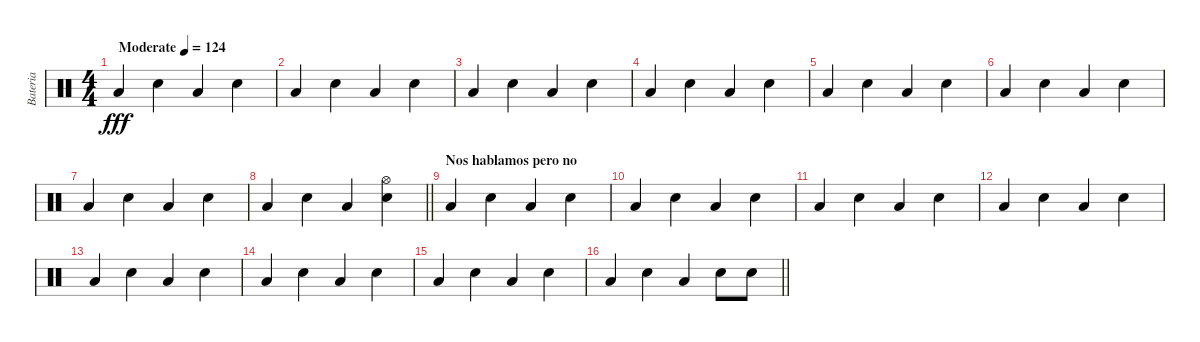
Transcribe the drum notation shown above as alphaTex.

\track ("Bateria" "Bateria") {instrument percussion}
\staff {score}
\articulation defaults
\ts (4 4)
\tempo (124 "Moderate")
\clef neutral
\ks c "Low Floor Tom (hit)".4{dy fff} "Snare (hit) 2".4 "Low Floor Tom (hit)".4 "Snare (hit) 2".4
|
"Low Floor Tom (hit)".4 "Snare (hit) 2".4 "Low Floor Tom (hit)".4 "Snare (hit) 2".4 |
"Low Floor Tom (hit)".4 "Snare (hit) 2".4 "Low Floor Tom (hit)".4 "Snare (hit) 2".4 |
"Low Floor Tom (hit)".4 "Snare (hit) 2".4 "Low Floor Tom (hit)".4 "Snare (hit) 2".4 |
"Low Floor Tom (hit)".4 "Snare (hit) 2".4 "Low Floor Tom (hit)".4 "Snare (hit) 2".4 |
"Low Floor Tom (hit)".4 "Snare (hit) 2".4 "Low Floor Tom (hit)".4 "Snare (hit) 2".4 |
"Low Floor Tom (hit)".4 "Snare (hit) 2".4 "Low Floor Tom (hit)".4 "Snare (hit) 2".4 |
\barLineRight lightlight "Low Floor Tom (hit)".4 "Snare (hit) 2".4 "Low Floor Tom (hit)".4
("Hi-Hat (open)" "Snare (hit) 2").4 |
\section ("" "Nos hablamos pero no")
"Low Floor Tom (hit)".4 "Snare (hit) 2".4 "Low Floor Tom (hit)".4 "Snare (hit) 2".4 |
"Low Floor Tom (hit)".4 "Snare (hit) 2".4 "Low Floor Tom (hit)".4 "Snare (hit) 2".4 |
"Low Floor Tom (hit)".4 "Snare (hit) 2".4 "Low Floor Tom (hit)".4 "Snare (hit) 2".4 |
"Low Floor Tom (hit)".4 "Snare (hit) 2".4 "Low Floor Tom (hit)".4 "Snare (hit) 2".4 |
"Low Floor Tom (hit)".4 "Snare (hit) 2".4 "Low Floor Tom (hit)".4 "Snare (hit) 2".4 |
"Low Floor Tom (hit)".4 "Snare (hit) 2".4 "Low Floor Tom (hit)".4 "Snare (hit) 2".4 |
"Low Floor Tom (hit)".4 "Snare (hit) 2".4 "Low Floor Tom (hit)".4 "Snare (hit) 2".4 |
\barLineRight lightlight "Low Floor Tom (hit)".4 "Snare (hit) 2".4 "Low Floor Tom (hit)".4 "Snare (hit) 2".8 "Snare (hit) 2".8
